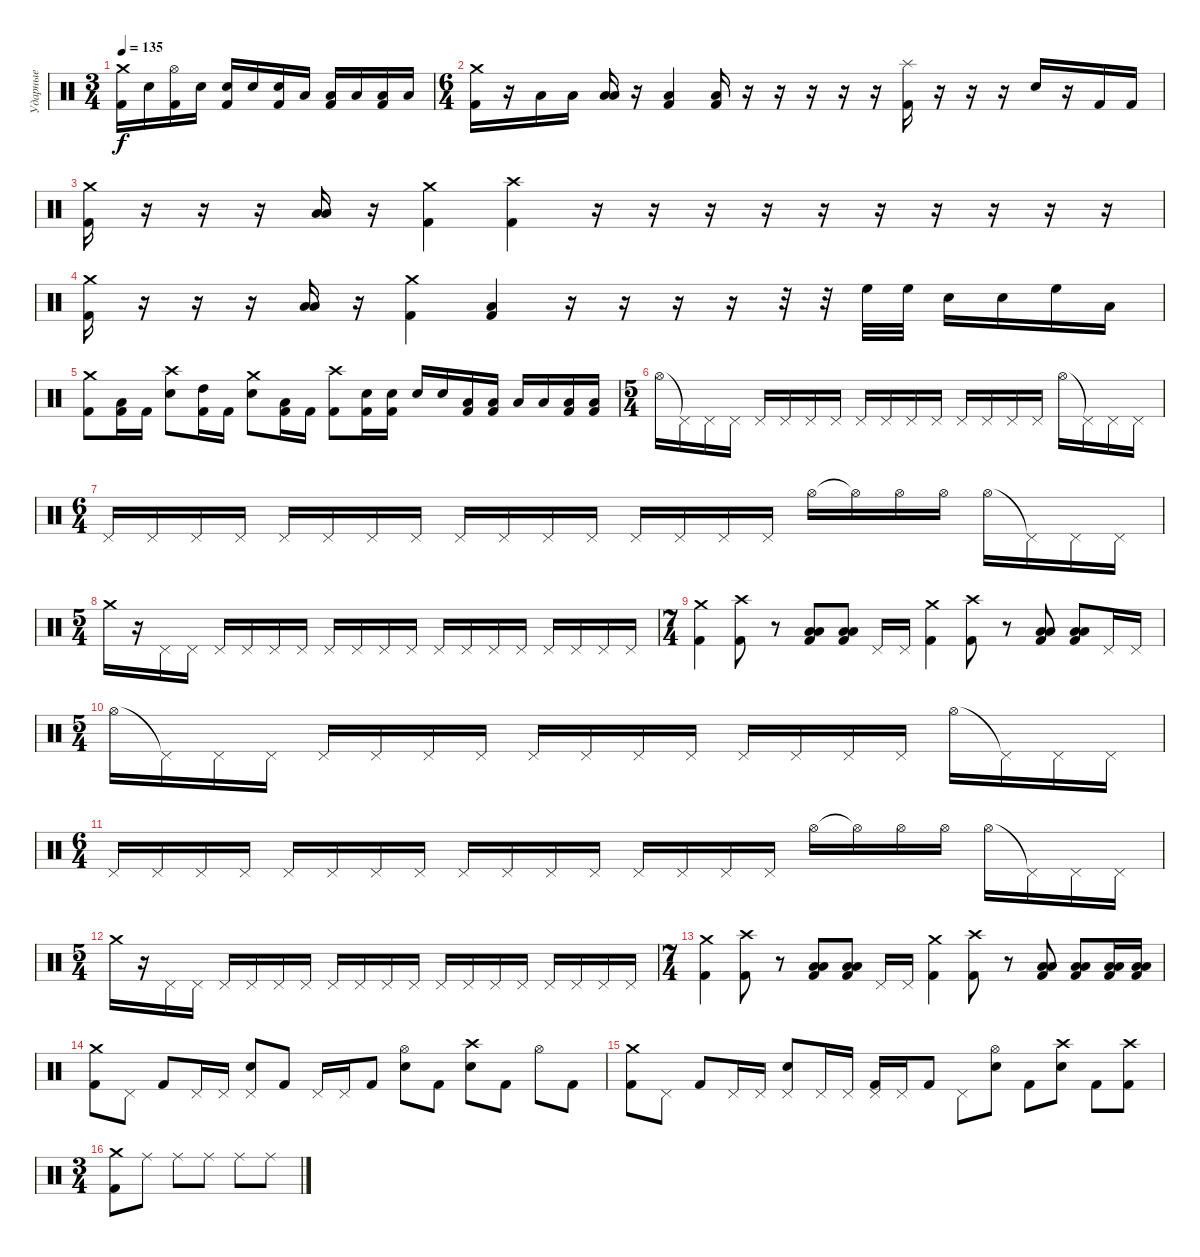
\track ("Ударные" "Ударные") {instrument percussion}
\staff {score}
\articulation defaults
\ts (3 4)
\tempo 135
\clef neutral
\ks c
("Crash medium (hit)" "Kick (hit) 2").16{dy f} "Electric Snare (hit)".16 ("Hi-Hat (open)" "Kick (hit) 2").16 "Electric Snare (hit)".16 ("Electric Snare (hit)" "Kick (hit) 2").16 "Electric Snare (hit)".16 ("Electric Snare (hit)" "Kick (hit) 2").16 "Low Tom (hit)".16 ("Low Tom (hit)" "Kick (hit) 2").16 "Low Floor Tom (hit)".16 ("Low Floor Tom (hit)" "Kick (hit) 2").16 "Low Floor Tom (hit)".16 |
\ts (6 4)
("Crash medium (hit)" "Kick (hit) 2").16 r.16 "Low Tom (hit)".16 "Low Tom (hit)".16 ("Low Floor Tom (hit)" "Low Tom (hit)").16 r.16 ("Low Tom (hit)" "Kick (hit) 2").4 ("Low Tom (hit)" "Kick (hit) 2").16 r.16 r.16 r.16 r.16 r.16 ("Splash (hit)" "Kick (hit) 2").16 r.16 r.16 r.16 "Electric Snare (hit)".16 r.16 "Kick (hit) 2".16 "Kick (hit) 2".16 |
("Crash medium (hit)" "Kick (hit) 2").16 r.16 r.16 r.16 ("Low Floor Tom (hit)" "Low Tom (hit)").16 r.16 ("Crash medium (hit)" "Kick (hit) 2").4 ("Crash high (hit)" "Kick (hit) 2").4 r.16 r.16 r.16 r.16 r.16 r.16 r.16 r.16 r.16 r.16 |
("Crash medium (hit)" "Kick (hit) 2").16 r.16 r.16 r.16 ("Low Floor Tom (hit)" "Low Tom (hit)").16 r.16 ("Crash medium (hit)" "Kick (hit) 2").4 ("Low Tom (hit)" "Kick (hit) 2").4 r.16 r.16 r.16 r.16 r.32 r.32 "High Floor Tom (hit)".32 "High Floor Tom (hit)".32 "Electric Snare (hit)".16 "Electric Snare (hit)".16 "High Floor Tom (hit)".16 "Low Tom (hit)".16 |
("Crash medium (hit)" "Kick (hit) 2").8 ("Low Tom (hit)" "Kick (hit) 2").16 "Kick (hit) 2".16 ("Crash high (hit)" "Electric Snare (hit)").8 ("High Tom (hit)" "Kick (hit) 2").16 "Kick (hit) 2".16 ("Crash medium (hit)" "Electric Snare (hit)").8 ("Low Floor Tom (hit)" "Kick (hit) 2").16 "Kick (hit) 2".16 ("Crash high (hit)" "Kick (hit) 2").8 ("Electric Snare (hit)" "Kick (hit) 2").16 ("Electric Snare (hit)" "Kick (hit) 2").16 "Electric Snare (hit)".16 "Electric Snare (hit)".16 ("Low Tom (hit)" "Kick (hit) 2").16 ("Low Tom (hit)" "Kick (hit) 2").16 "Low Floor Tom (hit)".16 "Low Floor Tom (hit)".16 ("Low Floor Tom (hit)" "Kick (hit) 2").16 ("Low Floor Tom (hit)" "Kick (hit) 2").16 |
\ts (5 4)
"Hi-Hat (open)".16 "Pedal Hi-Hat (hit)"{t}.16 "Pedal Hi-Hat (hit)".16 "Pedal Hi-Hat (hit)".16 "Pedal Hi-Hat (hit)".16 "Pedal Hi-Hat (hit)".16 "Pedal Hi-Hat (hit)".16 "Pedal Hi-Hat (hit)".16 "Pedal Hi-Hat (hit)".16 "Pedal Hi-Hat (hit)".16 "Pedal Hi-Hat (hit)".16 "Pedal Hi-Hat (hit)".16 "Pedal Hi-Hat (hit)".16 "Pedal Hi-Hat (hit)".16 "Pedal Hi-Hat (hit)".16 "Pedal Hi-Hat (hit)".16 "Hi-Hat (open)".16 "Pedal Hi-Hat (hit)"{t}.16 "Pedal Hi-Hat (hit)".16 "Pedal Hi-Hat (hit)".16 |
\ts (6 4)
"Pedal Hi-Hat (hit)".16 "Pedal Hi-Hat (hit)".16 "Pedal Hi-Hat (hit)".16 "Pedal Hi-Hat (hit)".16 "Pedal Hi-Hat (hit)".16 "Pedal Hi-Hat (hit)".16 "Pedal Hi-Hat (hit)".16 "Pedal Hi-Hat (hit)".16 "Pedal Hi-Hat (hit)".16 "Pedal Hi-Hat (hit)".16 "Pedal Hi-Hat (hit)".16 "Pedal Hi-Hat (hit)".16 "Pedal Hi-Hat (hit)".16 "Pedal Hi-Hat (hit)".16 "Pedal Hi-Hat (hit)".16 "Pedal Hi-Hat (hit)".16 "Hi-Hat (open)".16 "Hi-Hat (open)"{t}.16 "Hi-Hat (open)".16 "Hi-Hat (open)".16 "Hi-Hat (open)".16 "Pedal Hi-Hat (hit)"{t}.16 "Pedal Hi-Hat (hit)".16 "Pedal Hi-Hat (hit)".16 |
\ts (5 4)
"Crash medium (hit)".16 r.16 "Pedal Hi-Hat (hit)".16 "Pedal Hi-Hat (hit)".16 "Pedal Hi-Hat (hit)".16 "Pedal Hi-Hat (hit)".16 "Pedal Hi-Hat (hit)".16 "Pedal Hi-Hat (hit)".16 "Pedal Hi-Hat (hit)".16 "Pedal Hi-Hat (hit)".16 "Pedal Hi-Hat (hit)".16 "Pedal Hi-Hat (hit)".16 "Pedal Hi-Hat (hit)".16 "Pedal Hi-Hat (hit)".16 "Pedal Hi-Hat (hit)".16 "Pedal Hi-Hat (hit)".16 "Pedal Hi-Hat (hit)".16 "Pedal Hi-Hat (hit)".16 "Pedal Hi-Hat (hit)".16 "Pedal Hi-Hat (hit)".16 |
\ts (7 4)
("Crash medium (hit)" "Kick (hit) 2").4 ("Crash high (hit)" "Kick (hit) 2").8 r.8 ("Low Tom (hit)" "Low Floor Tom (hit)" "Kick (hit) 2").8 ("Low Floor Tom (hit)" "Low Tom (hit)" "Kick (hit) 2").8 "Pedal Hi-Hat (hit)".16 "Pedal Hi-Hat (hit)".16 ("Crash medium (hit)" "Kick (hit) 2").4 ("Crash high (hit)" "Kick (hit) 2").8 r.8 ("Low Tom (hit)" "Low Floor Tom (hit)" "Kick (hit) 2").8 ("Low Floor Tom (hit)" "Low Tom (hit)" "Kick (hit) 2").8 "Pedal Hi-Hat (hit)".16 "Pedal Hi-Hat (hit)".16 |
\ts (5 4)
"Hi-Hat (open)".16 "Pedal Hi-Hat (hit)"{t}.16 "Pedal Hi-Hat (hit)".16 "Pedal Hi-Hat (hit)".16 "Pedal Hi-Hat (hit)".16 "Pedal Hi-Hat (hit)".16 "Pedal Hi-Hat (hit)".16 "Pedal Hi-Hat (hit)".16 "Pedal Hi-Hat (hit)".16 "Pedal Hi-Hat (hit)".16 "Pedal Hi-Hat (hit)".16 "Pedal Hi-Hat (hit)".16 "Pedal Hi-Hat (hit)".16 "Pedal Hi-Hat (hit)".16 "Pedal Hi-Hat (hit)".16 "Pedal Hi-Hat (hit)".16 "Hi-Hat (open)".16 "Pedal Hi-Hat (hit)"{t}.16 "Pedal Hi-Hat (hit)".16 "Pedal Hi-Hat (hit)".16 |
\ts (6 4)
"Pedal Hi-Hat (hit)".16 "Pedal Hi-Hat (hit)".16 "Pedal Hi-Hat (hit)".16 "Pedal Hi-Hat (hit)".16 "Pedal Hi-Hat (hit)".16 "Pedal Hi-Hat (hit)".16 "Pedal Hi-Hat (hit)".16 "Pedal Hi-Hat (hit)".16 "Pedal Hi-Hat (hit)".16 "Pedal Hi-Hat (hit)".16 "Pedal Hi-Hat (hit)".16 "Pedal Hi-Hat (hit)".16 "Pedal Hi-Hat (hit)".16 "Pedal Hi-Hat (hit)".16 "Pedal Hi-Hat (hit)".16 "Pedal Hi-Hat (hit)".16 "Hi-Hat (open)".16 "Hi-Hat (open)"{t}.16 "Hi-Hat (open)".16 "Hi-Hat (open)".16 "Hi-Hat (open)".16 "Pedal Hi-Hat (hit)"{t}.16 "Pedal Hi-Hat (hit)".16 "Pedal Hi-Hat (hit)".16 |
\ts (5 4)
"Crash medium (hit)".16 r.16 "Pedal Hi-Hat (hit)".16 "Pedal Hi-Hat (hit)".16 "Pedal Hi-Hat (hit)".16 "Pedal Hi-Hat (hit)".16 "Pedal Hi-Hat (hit)".16 "Pedal Hi-Hat (hit)".16 "Pedal Hi-Hat (hit)".16 "Pedal Hi-Hat (hit)".16 "Pedal Hi-Hat (hit)".16 "Pedal Hi-Hat (hit)".16 "Pedal Hi-Hat (hit)".16 "Pedal Hi-Hat (hit)".16 "Pedal Hi-Hat (hit)".16 "Pedal Hi-Hat (hit)".16 "Pedal Hi-Hat (hit)".16 "Pedal Hi-Hat (hit)".16 "Pedal Hi-Hat (hit)".16 "Pedal Hi-Hat (hit)".16 |
\ts (7 4)
("Crash medium (hit)" "Kick (hit) 2").4 ("Crash high (hit)" "Kick (hit) 2").8 r.8 ("Low Tom (hit)" "Low Floor Tom (hit)" "Kick (hit) 2").8 ("Low Floor Tom (hit)" "Low Tom (hit)" "Kick (hit) 2").8 "Pedal Hi-Hat (hit)".16 "Pedal Hi-Hat (hit)".16 ("Crash medium (hit)" "Kick (hit) 2").4 ("Crash high (hit)" "Kick (hit) 2").8 r.8 ("Low Tom (hit)" "Low Floor Tom (hit)" "Kick (hit) 2").8 ("Low Floor Tom (hit)" "Low Tom (hit)" "Kick (hit) 2").8 ("Low Tom (hit)" "Low Floor Tom (hit)" "Kick (hit) 2").16 ("Low Tom (hit)" "Low Floor Tom (hit)" "Kick (hit) 2").16 |
("Crash medium (hit)" "Kick (hit) 2").8 "Pedal Hi-Hat (hit)".8 "Kick (hit) 2".8 "Pedal Hi-Hat (hit)".16 "Pedal Hi-Hat (hit)".16 ("Pedal Hi-Hat (hit)" "Electric Snare (hit)").8 "Kick (hit) 2".8 "Pedal Hi-Hat (hit)".16 "Pedal Hi-Hat (hit)".16 "Kick (hit) 2".8 ("Hi-Hat (open)" "Electric Snare (hit)").8 "Kick (hit) 2".8 ("Crash high (hit)" "Electric Snare (hit)").8 "Kick (hit) 2".8 "Hi-Hat (open)".8 "Kick (hit) 2".8 |
("Crash medium (hit)" "Kick (hit) 2").8 "Pedal Hi-Hat (hit)".8 "Kick (hit) 2".8 "Pedal Hi-Hat (hit)".16 "Pedal Hi-Hat (hit)".16 ("Pedal Hi-Hat (hit)" "Electric Snare (hit)").8 "Pedal Hi-Hat (hit)".16 "Pedal Hi-Hat (hit)".16 ("Pedal Hi-Hat (hit)" "Kick (hit) 2").16 "Pedal Hi-Hat (hit)".16 "Kick (hit) 2".8 "Pedal Hi-Hat (hit)".8 ("Hi-Hat (open)" "Electric Snare (hit)").8 "Kick (hit) 2".8 ("Crash high (hit)" "Electric Snare (hit)").8 "Kick (hit) 2".8 ("Crash high (hit)" "Kick (hit) 2").8 |
\ts (3 4)
("Crash medium (hit)" "Kick (hit) 2").8 "Ride (middle)".8 "Ride (middle)".8 "Ride (middle)".8 "Ride (middle)".8 "Ride (middle)".8
